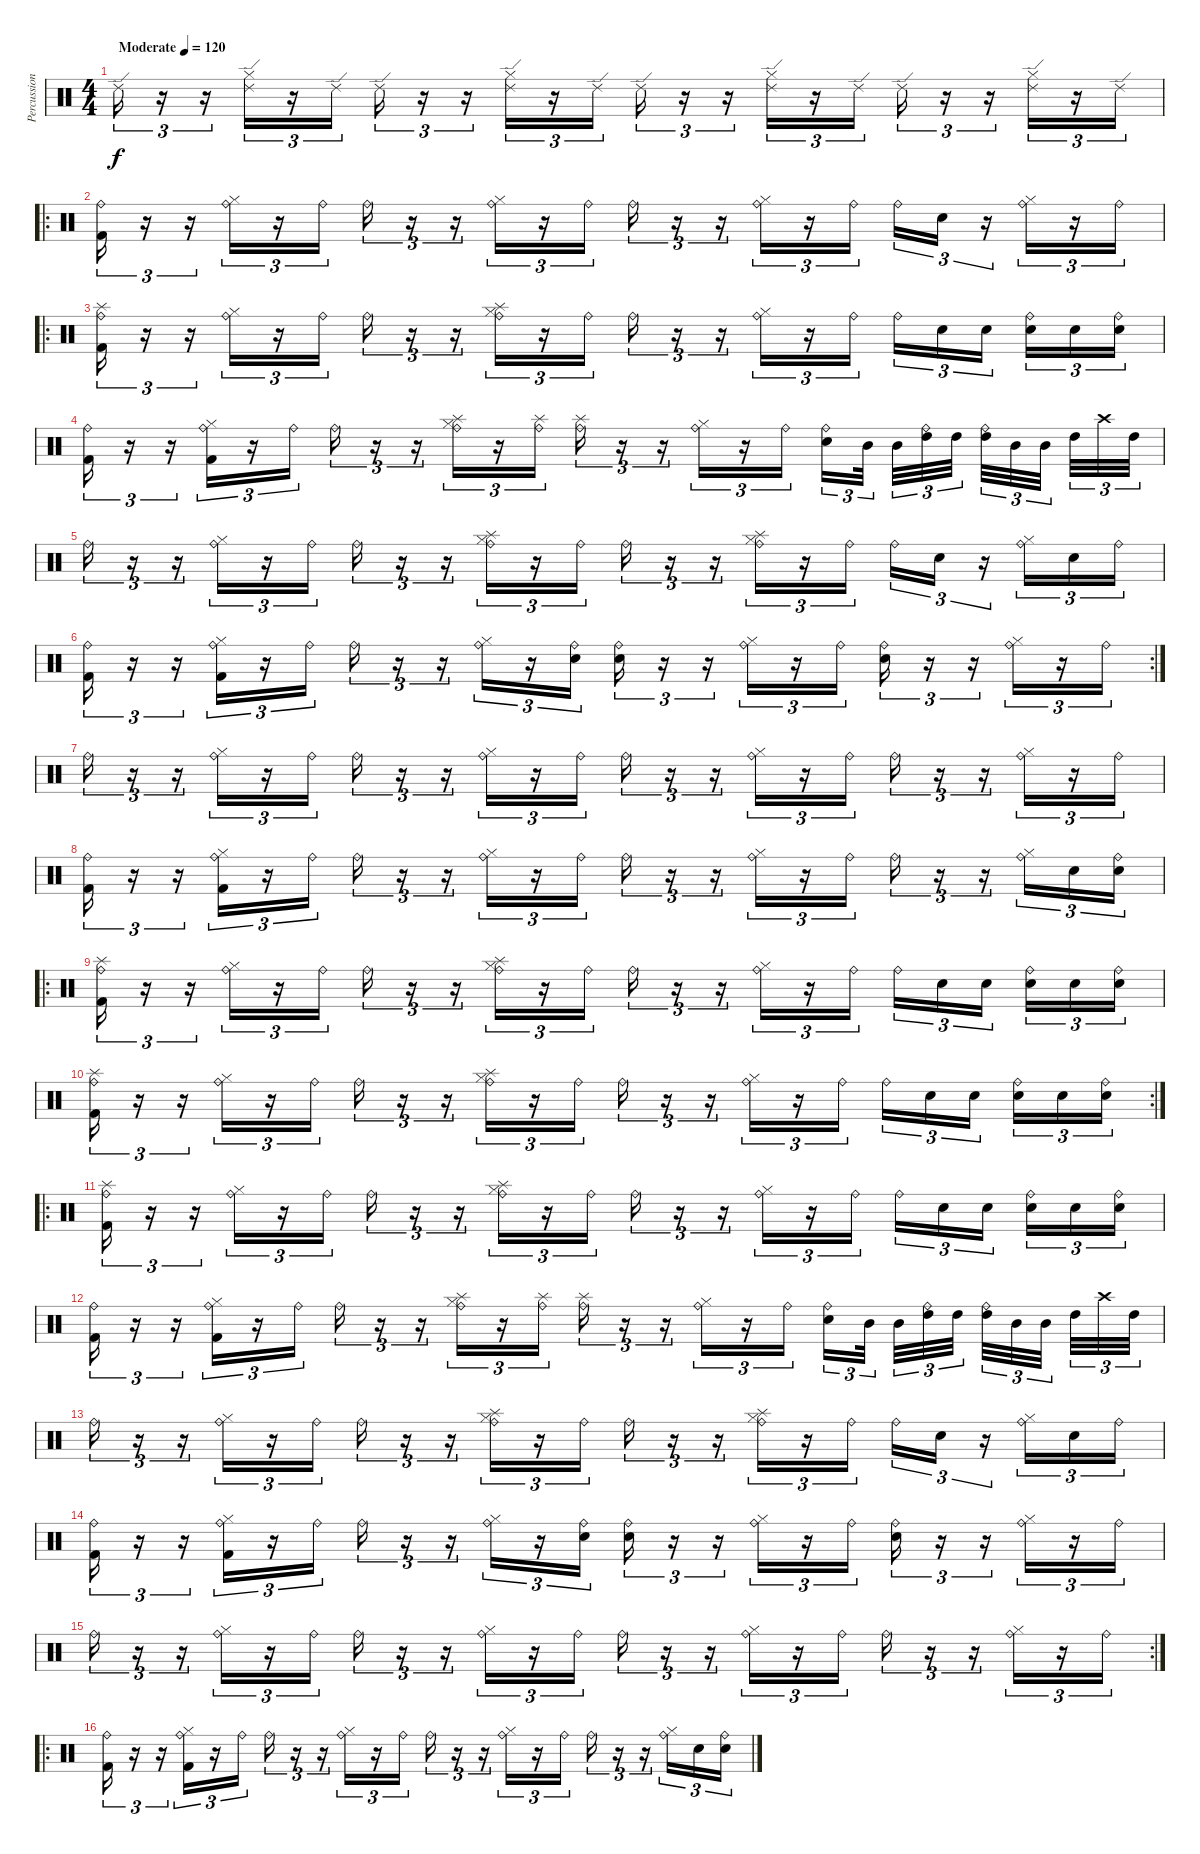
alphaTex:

\track ("Percussion" "Percussion") {instrument percussion}
\staff {score}
\articulation defaults
\ts (4 4)
\tempo (120 "Moderate")
\clef neutral
\ks c "Ride (edge) 2".16{tu (3 2) dy f}
r.16{tu (3 2)} r.16{tu (3 2)} ("Hi-Hat (closed)" "Ride (edge) 2").16{tu (3 2)} r.16{tu (3 2)} "Ride (edge) 2".16{tu (3 2)} "Ride (edge) 2".16{tu (3 2)} r.16{tu (3 2)} r.16{tu (3 2)} ("Hi-Hat (closed)" "Ride (edge) 2").16{tu (3 2)} r.16{tu (3 2)} "Ride (edge) 2".16{tu (3 2)} "Ride (edge) 2".16{tu (3 2)} r.16{tu (3 2)} r.16{tu (3 2)} ("Hi-Hat (closed)" "Ride (edge) 2").16{tu (3 2)} r.16{tu (3 2)} "Ride (edge) 2".16{tu (3 2)} "Ride (edge) 2".16{tu (3 2)} r.16{tu (3 2)} r.16{tu (3 2)} ("Hi-Hat (closed)" "Ride (edge) 2").16{tu (3 2)} r.16{tu (3 2)} "Ride (edge) 2".16{tu (3 2)} |
\ro
("Kick (hit) 2" "Ride (bell)").16{tu (3 2)} r.16{tu (3 2)} r.16{tu (3 2)} ("Hi-Hat (closed)" "Ride (bell)").16{tu (3 2)} r.16{tu (3 2)} "Ride (bell)".16{tu (3 2)} "Ride (bell)".16{tu (3 2)} r.16{tu (3 2)} r.16{tu (3 2)} ("Hi-Hat (closed)" "Ride (bell)").16{tu (3 2)} r.16{tu (3 2)} "Ride (bell)".16{tu (3 2)} "Ride (bell)".16{tu (3 2)} r.16{tu (3 2)} r.16{tu (3 2)} ("Hi-Hat (closed)" "Ride (bell)").16{tu (3 2)} r.16{tu (3 2)} "Ride (bell)".16{tu (3 2)} "Ride (bell)".16{tu (3 2)} "Snare (hit) 2".16{tu (3 2)} r.16{tu (3 2)} ("Hi-Hat (closed)" "Ride (bell)").16{tu (3 2)} r.16{tu (3 2)} "Ride (bell)".16{tu (3 2)} |
\ro
("Kick (hit) 2" "Ride (bell)" "Splash (hit)").16{tu (3 2)} r.16{tu (3 2)} r.16{tu (3 2)} ("Hi-Hat (closed)" "Ride (bell)").16{tu (3 2)} r.16{tu (3 2)} "Ride (bell)".16{tu (3 2)} "Ride (bell)".16{tu (3 2)} r.16{tu (3 2)} r.16{tu (3 2)} ("Hi-Hat (closed)" "Ride (bell)" "Splash (hit)").16{tu (3 2)} r.16{tu (3 2)} "Ride (bell)".16{tu (3 2)} "Ride (bell)".16{tu (3 2)} r.16{tu (3 2)} r.16{tu (3 2)} ("Hi-Hat (closed)" "Ride (bell)").16{tu (3 2)} r.16{tu (3 2)} "Ride (bell)".16{tu (3 2)} "Ride (bell)".16{tu (3 2)} "Snare (hit) 2".16{tu (3 2)} "Snare (hit) 2".16{tu (3 2) beam splitsecondary} ("Snare (hit) 2" "Ride (bell)").16{tu (3 2)} "Snare (hit) 2".16{tu (3 2)} ("Snare (hit) 2" "Ride (bell)").16{tu (3 2)} |
("Kick (hit) 2" "Ride (bell)").16{tu (3 2)} r.16{tu (3 2)} r.16{tu (3 2)} ("Hi-Hat (closed)" "Ride (bell)" "Kick (hit) 2").16{tu (3 2)} r.16{tu (3 2)} "Ride (bell)".16{tu (3 2)} "Ride (bell)".16{tu (3 2)} r.16{tu (3 2)} r.16{tu (3 2)} ("Hi-Hat (closed)" "Ride (bell)" "Splash (hit)").16{tu (3 2)} r.16{tu (3 2)} ("Ride (bell)" "Splash (hit)").16{tu (3 2)} ("Ride (bell)" "Splash (hit)").16{tu (3 2)} r.16{tu (3 2)} r.16{tu (3 2)} ("Hi-Hat (closed)" "Ride (bell)").16{tu (3 2)} r.16{tu (3 2)} "Ride (bell)".16{tu (3 2)} ("Snare (hit) 2" "Ride (bell)").16{tu (3 2)} "Mid Tom (hit)".32{tu (3 2) beam splitsecondary} "Mid Tom (hit)".32{tu (3 2)} ("High Tom (hit)" "Ride (bell)").32{tu (3 2)} "High Tom (hit)".32{tu (3 2) beam splitsecondary} ("High Tom (hit)" "Ride (bell)").32{tu (3 2)} "Mid Tom (hit)".32{tu (3 2)} "Mid Tom (hit)".32{tu (3 2) beam splitsecondary} "High Tom (hit)".32{tu (3 2)} "Crash high (hit)".32{tu (3 2)} "High Tom (hit)".32{tu (3 2)} |
"Ride (bell)".16{tu (3 2)} r.16{tu (3 2)} r.16{tu (3 2)} ("Hi-Hat (closed)" "Ride (bell)").16{tu (3 2)} r.16{tu (3 2)} "Ride (bell)".16{tu (3 2)} "Ride (bell)".16{tu (3 2)} r.16{tu (3 2)} r.16{tu (3 2)} ("Hi-Hat (closed)" "Ride (bell)" "Splash (hit)").16{tu (3 2)} r.16{tu (3 2)} "Ride (bell)".16{tu (3 2)} "Ride (bell)".16{tu (3 2)} r.16{tu (3 2)} r.16{tu (3 2)} ("Hi-Hat (closed)" "Ride (bell)" "Splash (hit)").16{tu (3 2)} r.16{tu (3 2)} "Ride (bell)".16{tu (3 2)} "Ride (bell)".16{tu (3 2)} "Snare (hit) 2".16{tu (3 2)} r.16{tu (3 2)} ("Hi-Hat (closed)" "Ride (bell)").16{tu (3 2)} "Snare (hit) 2".16{tu (3 2)} "Ride (bell)".16{tu (3 2)} |
\rc 2
("Kick (hit) 2" "Ride (bell)").16{tu (3 2)} r.16{tu (3 2)} r.16{tu (3 2)} ("Hi-Hat (closed)" "Ride (bell)" "Kick (hit) 2").16{tu (3 2)} r.16{tu (3 2)} "Ride (bell)".16{tu (3 2)} "Ride (bell)".16{tu (3 2)} r.16{tu (3 2)} r.16{tu (3 2)} ("Hi-Hat (closed)" "Ride (bell)").16{tu (3 2)} r.16{tu (3 2)} ("Snare (hit) 2" "Ride (bell)").16{tu (3 2)} ("Snare (hit) 2" "Ride (bell)").16{tu (3 2)} r.16{tu (3 2)} r.16{tu (3 2)} ("Hi-Hat (closed)" "Ride (bell)").16{tu (3 2)} r.16{tu (3 2)} "Ride (bell)".16{tu (3 2)} ("Snare (hit) 2" "Ride (bell)").16{tu (3 2)} r.16{tu (3 2)} r.16{tu (3 2)} ("Hi-Hat (closed)" "Ride (bell)").16{tu (3 2)} r.16{tu (3 2)} "Ride (bell)".16{tu (3 2)} |
"Ride (bell)".16{tu (3 2)} r.16{tu (3 2)} r.16{tu (3 2)} ("Hi-Hat (closed)" "Ride (bell)").16{tu (3 2)} r.16{tu (3 2)} "Ride (bell)".16{tu (3 2)} "Ride (bell)".16{tu (3 2)} r.16{tu (3 2)} r.16{tu (3 2)} ("Hi-Hat (closed)" "Ride (bell)").16{tu (3 2)} r.16{tu (3 2)} "Ride (bell)".16{tu (3 2)} "Ride (bell)".16{tu (3 2)} r.16{tu (3 2)} r.16{tu (3 2)} ("Hi-Hat (closed)" "Ride (bell)").16{tu (3 2)} r.16{tu (3 2)} "Ride (bell)".16{tu (3 2)} "Ride (bell)".16{tu (3 2)} r.16{tu (3 2)} r.16{tu (3 2)} ("Hi-Hat (closed)" "Ride (bell)").16{tu (3 2)} r.16{tu (3 2)} "Ride (bell)".16{tu (3 2)} |
("Kick (hit) 2" "Ride (bell)").16{tu (3 2)} r.16{tu (3 2)} r.16{tu (3 2)} ("Hi-Hat (closed)" "Ride (bell)" "Kick (hit) 2").16{tu (3 2)} r.16{tu (3 2)} "Ride (bell)".16{tu (3 2)} "Ride (bell)".16{tu (3 2)} r.16{tu (3 2)} r.16{tu (3 2)} ("Hi-Hat (closed)" "Ride (bell)").16{tu (3 2)} r.16{tu (3 2)} "Ride (bell)".16{tu (3 2)} "Ride (bell)".16{tu (3 2)} r.16{tu (3 2)} r.16{tu (3 2)} ("Hi-Hat (closed)" "Ride (bell)").16{tu (3 2)} r.16{tu (3 2)} "Ride (bell)".16{tu (3 2)} "Ride (bell)".16{tu (3 2)} r.16{tu (3 2)} r.16{tu (3 2)} ("Hi-Hat (closed)" "Ride (bell)").16{tu (3 2)} "Snare (hit) 2".16{tu (3 2)} ("Snare (hit) 2" "Ride (bell)").16{tu (3 2)} |
\ro
("Kick (hit) 2" "Ride (bell)" "Splash (hit)").16{tu (3 2)} r.16{tu (3 2)} r.16{tu (3 2)} ("Hi-Hat (closed)" "Ride (bell)").16{tu (3 2)} r.16{tu (3 2)} "Ride (bell)".16{tu (3 2)} "Ride (bell)".16{tu (3 2)} r.16{tu (3 2)} r.16{tu (3 2)} ("Hi-Hat (closed)" "Ride (bell)" "Splash (hit)").16{tu (3 2)} r.16{tu (3 2)} "Ride (bell)".16{tu (3 2)} "Ride (bell)".16{tu (3 2)} r.16{tu (3 2)} r.16{tu (3 2)} ("Hi-Hat (closed)" "Ride (bell)").16{tu (3 2)} r.16{tu (3 2)} "Ride (bell)".16{tu (3 2)} "Ride (bell)".16{tu (3 2)} "Snare (hit) 2".16{tu (3 2)} "Snare (hit) 2".16{tu (3 2) beam splitsecondary} ("Snare (hit) 2" "Ride (bell)").16{tu (3 2)} "Snare (hit) 2".16{tu (3 2)} ("Snare (hit) 2" "Ride (bell)").16{tu (3 2)} |
\rc 2
("Kick (hit) 2" "Ride (bell)" "Splash (hit)").16{tu (3 2)} r.16{tu (3 2)} r.16{tu (3 2)} ("Hi-Hat (closed)" "Ride (bell)").16{tu (3 2)} r.16{tu (3 2)} "Ride (bell)".16{tu (3 2)} "Ride (bell)".16{tu (3 2)} r.16{tu (3 2)} r.16{tu (3 2)} ("Hi-Hat (closed)" "Ride (bell)" "Splash (hit)").16{tu (3 2)} r.16{tu (3 2)} "Ride (bell)".16{tu (3 2)} "Ride (bell)".16{tu (3 2)} r.16{tu (3 2)} r.16{tu (3 2)} ("Hi-Hat (closed)" "Ride (bell)").16{tu (3 2)} r.16{tu (3 2)} "Ride (bell)".16{tu (3 2)} "Ride (bell)".16{tu (3 2)} "Snare (hit) 2".16{tu (3 2)} "Snare (hit) 2".16{tu (3 2) beam splitsecondary} ("Snare (hit) 2" "Ride (bell)").16{tu (3 2)} "Snare (hit) 2".16{tu (3 2)} ("Snare (hit) 2" "Ride (bell)").16{tu (3 2)} |
\ro
("Kick (hit) 2" "Ride (bell)" "Splash (hit)").16{tu (3 2)} r.16{tu (3 2)} r.16{tu (3 2)} ("Hi-Hat (closed)" "Ride (bell)").16{tu (3 2)} r.16{tu (3 2)} "Ride (bell)".16{tu (3 2)} "Ride (bell)".16{tu (3 2)} r.16{tu (3 2)} r.16{tu (3 2)} ("Hi-Hat (closed)" "Ride (bell)" "Splash (hit)").16{tu (3 2)} r.16{tu (3 2)} "Ride (bell)".16{tu (3 2)} "Ride (bell)".16{tu (3 2)} r.16{tu (3 2)} r.16{tu (3 2)} ("Hi-Hat (closed)" "Ride (bell)").16{tu (3 2)} r.16{tu (3 2)} "Ride (bell)".16{tu (3 2)} "Ride (bell)".16{tu (3 2)} "Snare (hit) 2".16{tu (3 2)} "Snare (hit) 2".16{tu (3 2) beam splitsecondary} ("Snare (hit) 2" "Ride (bell)").16{tu (3 2)} "Snare (hit) 2".16{tu (3 2)} ("Snare (hit) 2" "Ride (bell)").16{tu (3 2)} |
("Kick (hit) 2" "Ride (bell)").16{tu (3 2)} r.16{tu (3 2)} r.16{tu (3 2)} ("Hi-Hat (closed)" "Ride (bell)" "Kick (hit) 2").16{tu (3 2)} r.16{tu (3 2)} "Ride (bell)".16{tu (3 2)} "Ride (bell)".16{tu (3 2)} r.16{tu (3 2)} r.16{tu (3 2)} ("Hi-Hat (closed)" "Ride (bell)" "Splash (hit)").16{tu (3 2)} r.16{tu (3 2)} ("Ride (bell)" "Splash (hit)").16{tu (3 2)} ("Ride (bell)" "Splash (hit)").16{tu (3 2)} r.16{tu (3 2)} r.16{tu (3 2)} ("Hi-Hat (closed)" "Ride (bell)").16{tu (3 2)} r.16{tu (3 2)} "Ride (bell)".16{tu (3 2)} ("Snare (hit) 2" "Ride (bell)").16{tu (3 2)} "Mid Tom (hit)".32{tu (3 2) beam splitsecondary} "Mid Tom (hit)".32{tu (3 2)} ("High Tom (hit)" "Ride (bell)").32{tu (3 2)} "High Tom (hit)".32{tu (3 2) beam splitsecondary} ("High Tom (hit)" "Ride (bell)").32{tu (3 2)} "Mid Tom (hit)".32{tu (3 2)} "Mid Tom (hit)".32{tu (3 2) beam splitsecondary} "High Tom (hit)".32{tu (3 2)} "Crash high (hit)".32{tu (3 2)} "High Tom (hit)".32{tu (3 2)} |
"Ride (bell)".16{tu (3 2)} r.16{tu (3 2)} r.16{tu (3 2)} ("Hi-Hat (closed)" "Ride (bell)").16{tu (3 2)} r.16{tu (3 2)} "Ride (bell)".16{tu (3 2)} "Ride (bell)".16{tu (3 2)} r.16{tu (3 2)} r.16{tu (3 2)} ("Hi-Hat (closed)" "Ride (bell)" "Splash (hit)").16{tu (3 2)} r.16{tu (3 2)} "Ride (bell)".16{tu (3 2)} "Ride (bell)".16{tu (3 2)} r.16{tu (3 2)} r.16{tu (3 2)} ("Hi-Hat (closed)" "Ride (bell)" "Splash (hit)").16{tu (3 2)} r.16{tu (3 2)} "Ride (bell)".16{tu (3 2)} "Ride (bell)".16{tu (3 2)} "Snare (hit) 2".16{tu (3 2)} r.16{tu (3 2)} ("Hi-Hat (closed)" "Ride (bell)").16{tu (3 2)} "Snare (hit) 2".16{tu (3 2)} "Ride (bell)".16{tu (3 2)} |
("Kick (hit) 2" "Ride (bell)").16{tu (3 2)} r.16{tu (3 2)} r.16{tu (3 2)} ("Hi-Hat (closed)" "Ride (bell)" "Kick (hit) 2").16{tu (3 2)} r.16{tu (3 2)} "Ride (bell)".16{tu (3 2)} "Ride (bell)".16{tu (3 2)} r.16{tu (3 2)} r.16{tu (3 2)} ("Hi-Hat (closed)" "Ride (bell)").16{tu (3 2)} r.16{tu (3 2)} ("Snare (hit) 2" "Ride (bell)").16{tu (3 2)} ("Snare (hit) 2" "Ride (bell)").16{tu (3 2)} r.16{tu (3 2)} r.16{tu (3 2)} ("Hi-Hat (closed)" "Ride (bell)").16{tu (3 2)} r.16{tu (3 2)} "Ride (bell)".16{tu (3 2)} ("Snare (hit) 2" "Ride (bell)").16{tu (3 2)} r.16{tu (3 2)} r.16{tu (3 2)} ("Hi-Hat (closed)" "Ride (bell)").16{tu (3 2)} r.16{tu (3 2)} "Ride (bell)".16{tu (3 2)} |
\rc 2 "Ride (bell)".16{tu (3 2)}
r.16{tu (3 2)} r.16{tu (3 2)} ("Hi-Hat (closed)" "Ride (bell)").16{tu (3 2)} r.16{tu (3 2)} "Ride (bell)".16{tu (3 2)} "Ride (bell)".16{tu (3 2)} r.16{tu (3 2)} r.16{tu (3 2)} ("Hi-Hat (closed)" "Ride (bell)").16{tu (3 2)} r.16{tu (3 2)} "Ride (bell)".16{tu (3 2)} "Ride (bell)".16{tu (3 2)} r.16{tu (3 2)} r.16{tu (3 2)} ("Hi-Hat (closed)" "Ride (bell)").16{tu (3 2)} r.16{tu (3 2)} "Ride (bell)".16{tu (3 2)} "Ride (bell)".16{tu (3 2)} r.16{tu (3 2)} r.16{tu (3 2)} ("Hi-Hat (closed)" "Ride (bell)").16{tu (3 2)} r.16{tu (3 2)} "Ride (bell)".16{tu (3 2)} |
\ro
("Kick (hit) 2" "Ride (bell)").16{tu (3 2)} r.16{tu (3 2)} r.16{tu (3 2)} ("Hi-Hat (closed)" "Ride (bell)" "Kick (hit) 2").16{tu (3 2)} r.16{tu (3 2)} "Ride (bell)".16{tu (3 2)} "Ride (bell)".16{tu (3 2)} r.16{tu (3 2)} r.16{tu (3 2)} ("Hi-Hat (closed)" "Ride (bell)").16{tu (3 2)} r.16{tu (3 2)} "Ride (bell)".16{tu (3 2)} "Ride (bell)".16{tu (3 2)} r.16{tu (3 2)} r.16{tu (3 2)} ("Hi-Hat (closed)" "Ride (bell)").16{tu (3 2)} r.16{tu (3 2)} "Ride (bell)".16{tu (3 2)} "Ride (bell)".16{tu (3 2)} r.16{tu (3 2)} r.16{tu (3 2)} ("Hi-Hat (closed)" "Ride (bell)").16{tu (3 2)} "Snare (hit) 2".16{tu (3 2)} ("Snare (hit) 2" "Ride (bell)").16{tu (3 2)}
